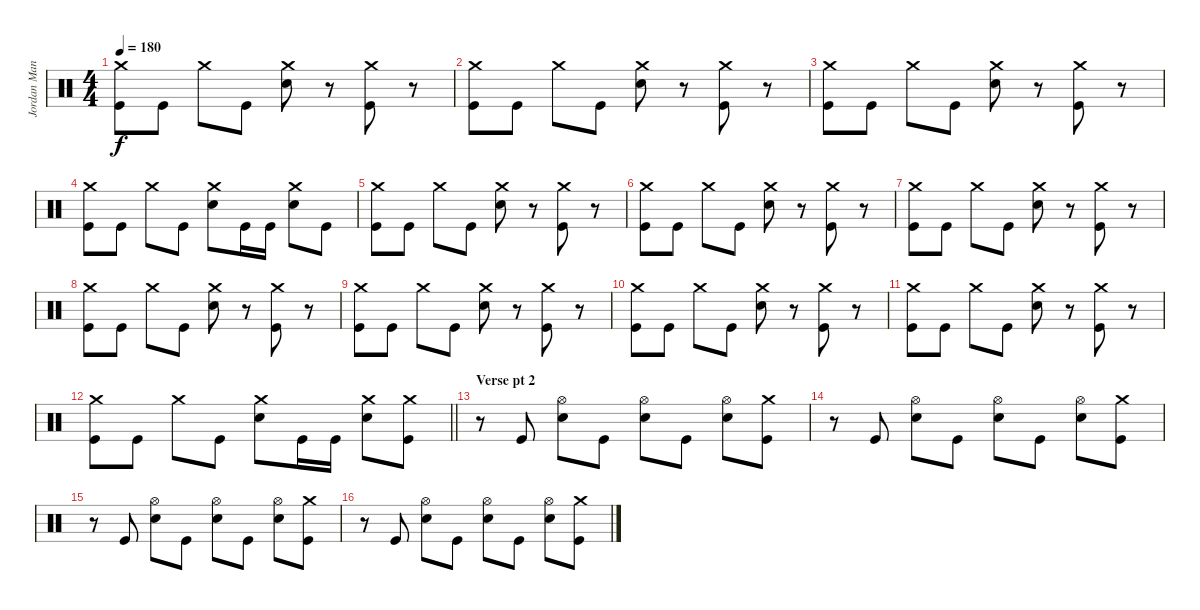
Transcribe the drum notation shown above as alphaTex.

\track ("Jordan Mancino" "Jordan Man") {instrument percussion}
\staff {score}
\articulation defaults
\ts (4 4)
\tempo 180
\clef neutral
\ks c
("Crash medium (hit)" "Kick (hit)").8{dy f} "Kick (hit)".8 "Crash medium (hit)".8 "Kick (hit)".8 ("Crash medium (hit)" "Snare (hit) 2").8 r.8 ("Crash medium (hit)" "Kick (hit)").8 r.8 |
("Crash medium (hit)" "Kick (hit)").8 "Kick (hit)".8 "Crash medium (hit)".8 "Kick (hit)".8 ("Crash medium (hit)" "Snare (hit) 2").8 r.8 ("Crash medium (hit)" "Kick (hit)").8 r.8 |
("Crash medium (hit)" "Kick (hit)").8 "Kick (hit)".8 "Crash medium (hit)".8 "Kick (hit)".8 ("Crash medium (hit)" "Snare (hit) 2").8 r.8 ("Crash medium (hit)" "Kick (hit)").8 r.8 |
("Crash medium (hit)" "Kick (hit)").8 "Kick (hit)".8 "Crash medium (hit)".8 "Kick (hit)".8 ("Crash medium (hit)" "Snare (hit) 2").8 "Kick (hit)".16 "Kick (hit)".16 ("Crash medium (hit)" "Snare (hit) 2").8 "Kick (hit)".8 |
("Crash medium (hit)" "Kick (hit)").8 "Kick (hit)".8 "Crash medium (hit)".8 "Kick (hit)".8 ("Crash medium (hit)" "Snare (hit) 2").8 r.8 ("Crash medium (hit)" "Kick (hit)").8 r.8 |
("Crash medium (hit)" "Kick (hit)").8 "Kick (hit)".8 "Crash medium (hit)".8 "Kick (hit)".8 ("Crash medium (hit)" "Snare (hit) 2").8 r.8 ("Crash medium (hit)" "Kick (hit)").8 r.8 |
("Crash medium (hit)" "Kick (hit)").8 "Kick (hit)".8 "Crash medium (hit)".8 "Kick (hit)".8 ("Crash medium (hit)" "Snare (hit) 2").8 r.8 ("Crash medium (hit)" "Kick (hit)").8 r.8 |
("Crash medium (hit)" "Kick (hit)").8 "Kick (hit)".8 "Crash medium (hit)".8 "Kick (hit)".8 ("Crash medium (hit)" "Snare (hit) 2").8 r.8 ("Crash medium (hit)" "Kick (hit)").8 r.8 |
("Crash medium (hit)" "Kick (hit)").8 "Kick (hit)".8 "Crash medium (hit)".8 "Kick (hit)".8 ("Crash medium (hit)" "Snare (hit) 2").8 r.8 ("Crash medium (hit)" "Kick (hit)").8 r.8 |
("Crash medium (hit)" "Kick (hit)").8 "Kick (hit)".8 "Crash medium (hit)".8 "Kick (hit)".8 ("Crash medium (hit)" "Snare (hit) 2").8 r.8 ("Crash medium (hit)" "Kick (hit)").8 r.8 |
("Crash medium (hit)" "Kick (hit)").8 "Kick (hit)".8 "Crash medium (hit)".8 "Kick (hit)".8 ("Crash medium (hit)" "Snare (hit) 2").8 r.8 ("Crash medium (hit)" "Kick (hit)").8 r.8 |
\barLineRight lightlight
("Crash medium (hit)" "Kick (hit)").8 "Kick (hit)".8 "Crash medium (hit)".8 "Kick (hit)".8 ("Crash medium (hit)" "Snare (hit) 2").8 "Kick (hit)".16 "Kick (hit)".16 ("Crash medium (hit)" "Snare (hit) 2").8 ("Crash medium (hit)" "Kick (hit)").8 |
\section ("" "Verse pt 2")
r.8 "Kick (hit)".8 ("Hi-Hat (open)" "Snare (hit) 2").8 "Kick (hit)".8 ("Hi-Hat (open)" "Snare (hit) 2").8 "Kick (hit)".8 ("Hi-Hat (open)" "Snare (hit) 2").8 ("Crash medium (hit)" "Kick (hit)").8 |
r.8 "Kick (hit)".8 ("Hi-Hat (open)" "Snare (hit) 2").8 "Kick (hit)".8 ("Hi-Hat (open)" "Snare (hit) 2").8 "Kick (hit)".8 ("Hi-Hat (open)" "Snare (hit) 2").8 ("Crash medium (hit)" "Kick (hit)").8 |
r.8 "Kick (hit)".8 ("Hi-Hat (open)" "Snare (hit) 2").8 "Kick (hit)".8 ("Hi-Hat (open)" "Snare (hit) 2").8 "Kick (hit)".8 ("Hi-Hat (open)" "Snare (hit) 2").8 ("Crash medium (hit)" "Kick (hit)").8 |
r.8 "Kick (hit)".8 ("Hi-Hat (open)" "Snare (hit) 2").8 "Kick (hit)".8 ("Hi-Hat (open)" "Snare (hit) 2").8 "Kick (hit)".8 ("Hi-Hat (open)" "Snare (hit) 2").8 ("Crash medium (hit)" "Kick (hit)").8
